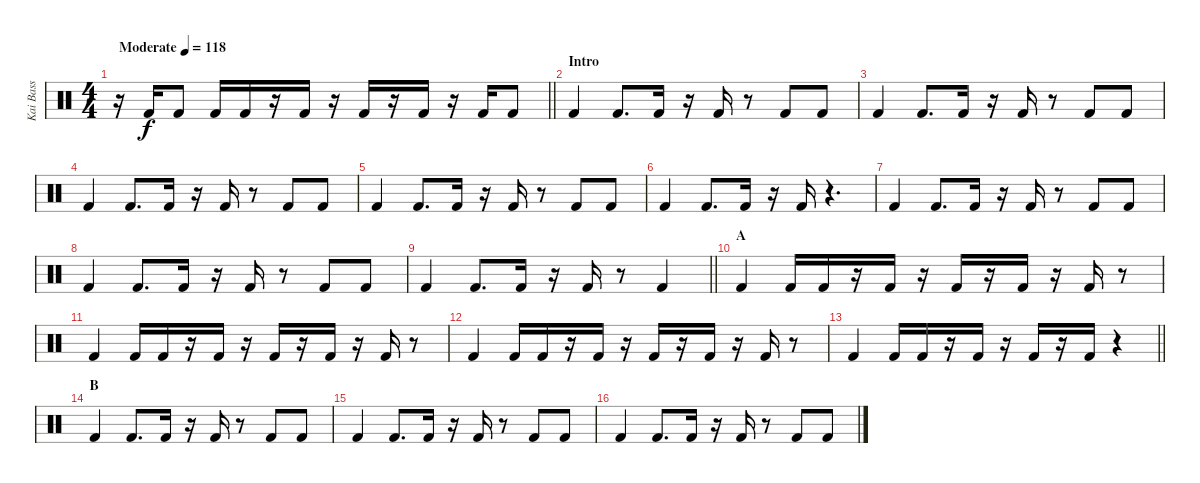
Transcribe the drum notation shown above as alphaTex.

\track ("Kai Bass" "Kai Bass") {instrument percussion}
\staff {score}
\articulation defaults
\ts (4 4)
\tempo (118 "Moderate")
\clef neutral
\barLineRight lightlight
\ks c
r.16{dy f} "Kick (hit) 2".16 "Kick (hit) 2".8 "Kick (hit) 2".16 "Kick (hit) 2".16 r.16 "Kick (hit) 2".16 r.16 "Kick (hit) 2".16 r.16 "Kick (hit) 2".16 r.16 "Kick (hit) 2".16 "Kick (hit) 2".8 |
\section ("" "Intro")
"Kick (hit) 2".4 "Kick (hit) 2".8{d} "Kick (hit) 2".16 r.16 "Kick (hit) 2".16 r.8 "Kick (hit) 2".8 "Kick (hit) 2".8 |
"Kick (hit) 2".4 "Kick (hit) 2".8{d} "Kick (hit) 2".16 r.16 "Kick (hit) 2".16 r.8 "Kick (hit) 2".8 "Kick (hit) 2".8 |
"Kick (hit) 2".4 "Kick (hit) 2".8{d} "Kick (hit) 2".16 r.16 "Kick (hit) 2".16 r.8 "Kick (hit) 2".8 "Kick (hit) 2".8 |
"Kick (hit) 2".4 "Kick (hit) 2".8{d} "Kick (hit) 2".16 r.16 "Kick (hit) 2".16 r.8 "Kick (hit) 2".8 "Kick (hit) 2".8 |
"Kick (hit) 2".4 "Kick (hit) 2".8{d} "Kick (hit) 2".16 r.16 "Kick (hit) 2".16 r.4{d} |
"Kick (hit) 2".4 "Kick (hit) 2".8{d} "Kick (hit) 2".16 r.16 "Kick (hit) 2".16 r.8 "Kick (hit) 2".8 "Kick (hit) 2".8 |
"Kick (hit) 2".4 "Kick (hit) 2".8{d} "Kick (hit) 2".16 r.16 "Kick (hit) 2".16 r.8 "Kick (hit) 2".8 "Kick (hit) 2".8 |
\barLineRight lightlight "Kick (hit) 2".4 "Kick (hit) 2".8{d} "Kick (hit) 2".16
r.16 "Kick (hit) 2".16 r.8 "Kick (hit) 2".4 |
\section ("" "A")
"Kick (hit) 2".4 "Kick (hit) 2".16 "Kick (hit) 2".16 r.16 "Kick (hit) 2".16 r.16 "Kick (hit) 2".16 r.16 "Kick (hit) 2".16 r.16 "Kick (hit) 2".16 r.8 |
"Kick (hit) 2".4 "Kick (hit) 2".16 "Kick (hit) 2".16 r.16 "Kick (hit) 2".16 r.16 "Kick (hit) 2".16 r.16 "Kick (hit) 2".16 r.16 "Kick (hit) 2".16 r.8 |
"Kick (hit) 2".4 "Kick (hit) 2".16 "Kick (hit) 2".16 r.16 "Kick (hit) 2".16 r.16 "Kick (hit) 2".16 r.16 "Kick (hit) 2".16 r.16 "Kick (hit) 2".16 r.8 |
\barLineRight lightlight "Kick (hit) 2".4 "Kick (hit) 2".16 "Kick (hit) 2".16
r.16 "Kick (hit) 2".16 r.16 "Kick (hit) 2".16 r.16 "Kick (hit) 2".16 r.4 |
\section ("" "B")
"Kick (hit) 2".4 "Kick (hit) 2".8{d} "Kick (hit) 2".16 r.16 "Kick (hit) 2".16 r.8 "Kick (hit) 2".8 "Kick (hit) 2".8 |
"Kick (hit) 2".4 "Kick (hit) 2".8{d} "Kick (hit) 2".16 r.16 "Kick (hit) 2".16 r.8 "Kick (hit) 2".8 "Kick (hit) 2".8 |
"Kick (hit) 2".4 "Kick (hit) 2".8{d} "Kick (hit) 2".16 r.16 "Kick (hit) 2".16 r.8 "Kick (hit) 2".8 "Kick (hit) 2".8
